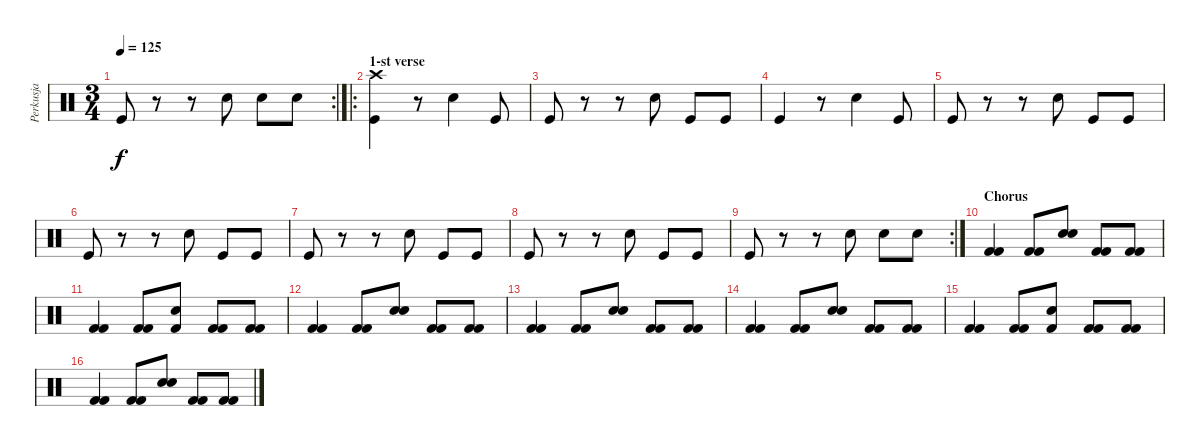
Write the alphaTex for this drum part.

\track ("Perkusja" "Perkusja") {instrument percussion}
\staff {score}
\articulation defaults
\rc 2
\ts (3 4)
\tempo 125
\clef neutral
\ks c "Kick (hit)".8{dy f}
r.8 r.8 "Electric Snare (hit)".8 "Snare (hit) 2".8 "Snare (hit) 2".8 |
\ro
\section ("" "1-st verse")
("Crash high (hit)" "Kick (hit)").4 r.8 "Electric Snare (hit)".4 "Kick (hit)".8 |
"Kick (hit)".8 r.8 r.8 "Electric Snare (hit)".8 "Kick (hit)".8 "Kick (hit)".8 |
"Kick (hit)".4 r.8 "Electric Snare (hit)".4 "Kick (hit)".8 |
"Kick (hit)".8 r.8 r.8 "Electric Snare (hit)".8 "Kick (hit)".8 "Kick (hit)".8 |
"Kick (hit)".8 r.8 r.8 "Electric Snare (hit)".8 "Kick (hit)".8 "Kick (hit)".8 |
"Kick (hit)".8 r.8 r.8 "Electric Snare (hit)".8 "Kick (hit)".8 "Kick (hit)".8 |
"Kick (hit)".8 r.8 r.8 "Electric Snare (hit)".8 "Kick (hit)".8 "Kick (hit)".8 |
\rc 2 "Kick (hit)".8
r.8 r.8 "Electric Snare (hit)".8 "Snare (hit) 2".8 "Snare (hit) 2".8 |
\section ("" "Chorus")
("Kick (hit) 2" "Kick (hit) 2").4 ("Kick (hit) 2" "Kick (hit) 2").8 ("Snare (hit) 2" "Snare (hit) 2").8 ("Kick (hit) 2" "Kick (hit) 2").8 ("Kick (hit) 2" "Kick (hit) 2").8 |
("Kick (hit) 2" "Kick (hit) 2").4 ("Kick (hit) 2" "Kick (hit) 2").8 ("Kick (hit) 2" "Snare (hit) 2").8 ("Kick (hit) 2" "Kick (hit) 2").8 ("Kick (hit) 2" "Kick (hit) 2").8 |
("Kick (hit) 2" "Kick (hit) 2").4 ("Kick (hit) 2" "Kick (hit) 2").8 ("Snare (hit) 2" "Snare (hit) 2").8 ("Kick (hit) 2" "Kick (hit) 2").8 ("Kick (hit) 2" "Kick (hit) 2").8 |
("Kick (hit) 2" "Kick (hit) 2").4 ("Kick (hit) 2" "Kick (hit) 2").8 ("Snare (hit) 2" "Snare (hit) 2").8 ("Kick (hit) 2" "Kick (hit) 2").8 ("Kick (hit) 2" "Kick (hit) 2").8 |
("Kick (hit) 2" "Kick (hit) 2").4 ("Kick (hit) 2" "Kick (hit) 2").8 ("Snare (hit) 2" "Snare (hit) 2").8 ("Kick (hit) 2" "Kick (hit) 2").8 ("Kick (hit) 2" "Kick (hit) 2").8 |
("Kick (hit) 2" "Kick (hit) 2").4 ("Kick (hit) 2" "Kick (hit) 2").8 ("Kick (hit) 2" "Snare (hit) 2").8 ("Kick (hit) 2" "Kick (hit) 2").8 ("Kick (hit) 2" "Kick (hit) 2").8 |
("Kick (hit) 2" "Kick (hit) 2").4 ("Kick (hit) 2" "Kick (hit) 2").8 ("Snare (hit) 2" "Snare (hit) 2").8 ("Kick (hit) 2" "Kick (hit) 2").8 ("Kick (hit) 2" "Kick (hit) 2").8
